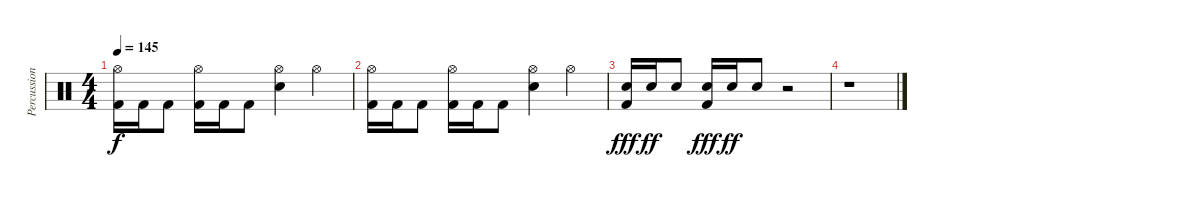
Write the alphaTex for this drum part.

\track ("Percussion" "Percussion") {instrument percussion}
\staff {score}
\articulation defaults
\ts (4 4)
\tempo 145
\clef neutral
\ks c
("Hi-Hat (open)" "Kick (hit) 2").16{dy f} "Kick (hit) 2".16 "Kick (hit) 2".8 ("Hi-Hat (open)" "Kick (hit) 2").16 "Kick (hit) 2".16 "Kick (hit) 2".8 ("Hi-Hat (open)" "Snare (hit) 2").4 "Hi-Hat (open)".4 |
("Hi-Hat (open)" "Kick (hit) 2").16 "Kick (hit) 2".16 "Kick (hit) 2".8 ("Hi-Hat (open)" "Kick (hit) 2").16 "Kick (hit) 2".16 "Kick (hit) 2".8 ("Hi-Hat (open)" "Snare (hit) 2").4 "Hi-Hat (open)".4 |
("Snare (hit) 2" "Kick (hit) 2").16{dy fff} "Snare (hit) 2".16{dy ff} "Snare (hit) 2".8 ("Snare (hit) 2" "Kick (hit) 2").16{dy fff} "Snare (hit) 2".16{dy ff} "Snare (hit) 2".8 r.2 |
r.1
